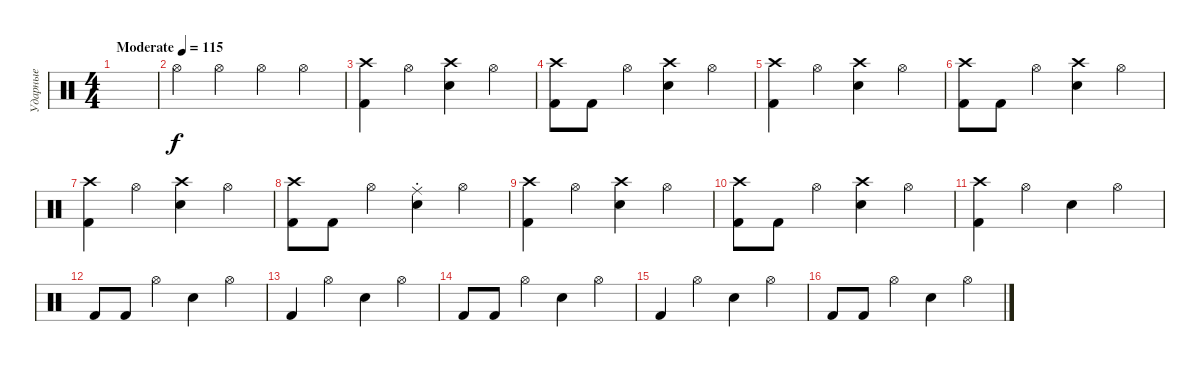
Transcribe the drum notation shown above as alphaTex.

\track ("Ударные" "Ударные") {mute instrument percussion}
\staff {score}
\articulation defaults
\ts (4 4)
\tempo (115 "Moderate")
\clef neutral
\ks c
|
"Hi-Hat (open)".4 "Hi-Hat (open)".4 "Hi-Hat (open)".4 "Hi-Hat (open)".4 |
("Crash high (hit)" "Kick (hit) 2").4 "Hi-Hat (open)".4 ("Crash high (hit)" "Electric Snare (hit)").4 "Hi-Hat (open)".4 |
("Crash high (hit)" "Kick (hit) 2").8 "Kick (hit) 2".8 "Hi-Hat (open)".4 ("Crash high (hit)" "Electric Snare (hit)").4 "Hi-Hat (open)".4 |
("Crash high (hit)" "Kick (hit) 2").4 "Hi-Hat (open)".4 ("Crash high (hit)" "Electric Snare (hit)").4 "Hi-Hat (open)".4 |
("Crash high (hit)" "Kick (hit) 2").8 "Kick (hit) 2".8 "Hi-Hat (open)".4 ("Crash high (hit)" "Electric Snare (hit)").4 "Hi-Hat (open)".4 |
("Crash high (hit)" "Kick (hit) 2").4 "Hi-Hat (open)".4 ("Crash high (hit)" "Electric Snare (hit)").4 "Hi-Hat (open)".4 |
("Crash high (hit)" "Kick (hit) 2").8 "Kick (hit) 2".8 "Hi-Hat (open)".4 ("Ride (choke)" "Electric Snare (hit)").4 "Hi-Hat (open)".4 |
("Crash high (hit)" "Kick (hit) 2").4 "Hi-Hat (open)".4 ("Crash high (hit)" "Electric Snare (hit)").4 "Hi-Hat (open)".4 |
("Crash high (hit)" "Kick (hit) 2").8 "Kick (hit) 2".8 "Hi-Hat (open)".4 ("Crash high (hit)" "Electric Snare (hit)").4 "Hi-Hat (open)".4 |
("Crash high (hit)" "Kick (hit) 2").4 "Hi-Hat (open)".4 "Electric Snare (hit)".4 "Hi-Hat (open)".4 |
"Kick (hit) 2".8 "Kick (hit) 2".8 "Hi-Hat (open)".4 "Electric Snare (hit)".4 "Hi-Hat (open)".4 |
"Kick (hit) 2".4 "Hi-Hat (open)".4 "Electric Snare (hit)".4 "Hi-Hat (open)".4 |
"Kick (hit) 2".8 "Kick (hit) 2".8 "Hi-Hat (open)".4 "Electric Snare (hit)".4 "Hi-Hat (open)".4 |
"Kick (hit) 2".4 "Hi-Hat (open)".4 "Electric Snare (hit)".4 "Hi-Hat (open)".4 |
"Kick (hit) 2".8 "Kick (hit) 2".8 "Hi-Hat (open)".4 "Electric Snare (hit)".4 "Hi-Hat (open)".4
